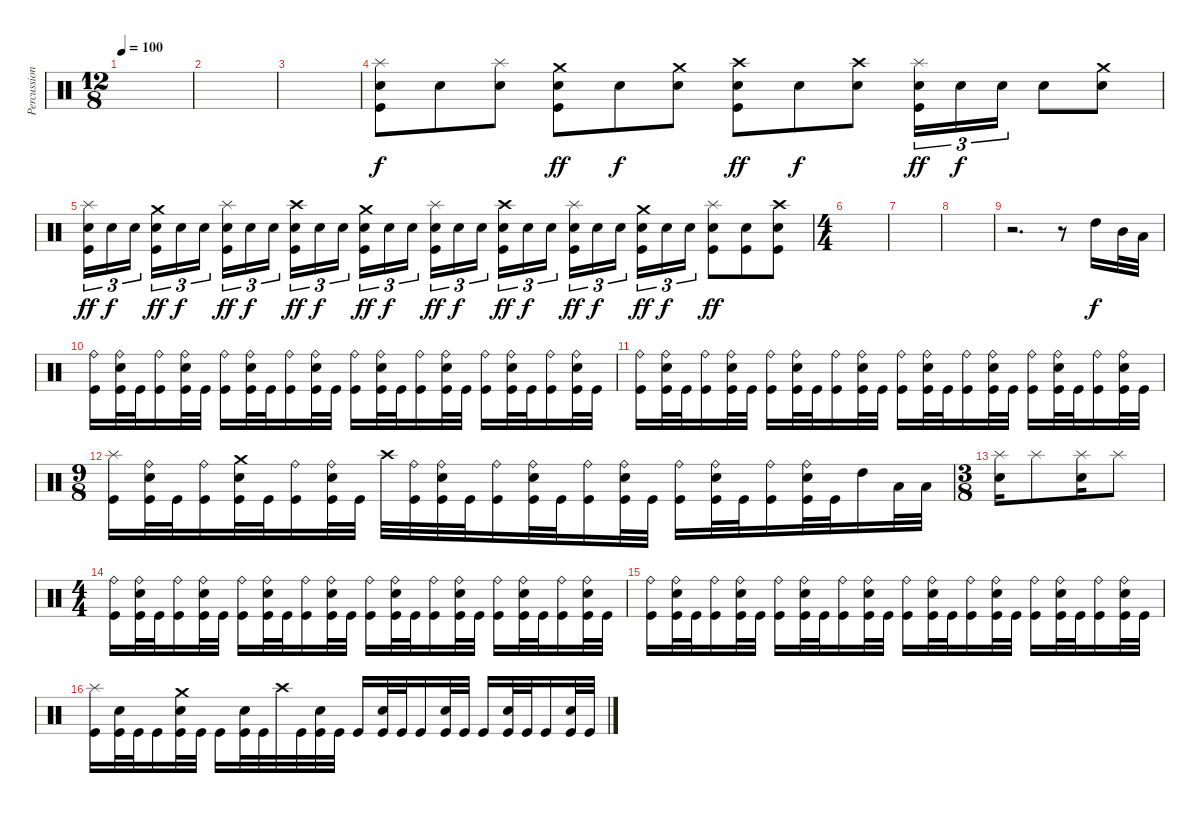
\track ("Percussioni" "Percussion") {instrument percussion}
\staff {score}
\articulation defaults
\ts (12 8)
\tempo 100
\clef neutral
\ks c
|
|
|
("Splash (hit)" "Snare (hit) 2" "Kick (hit)").8 "Snare (hit) 2".8{dy f} ("Splash (hit)" "Snare (hit) 2").8 ("Crash medium (hit)" "Snare (hit) 2" "Kick (hit)").8{dy ff} "Snare (hit) 2".8{dy f} ("Crash medium (hit)" "Snare (hit) 2").8 ("Crash high (hit)" "Snare (hit) 2" "Kick (hit)").8{dy ff} "Snare (hit) 2".8{dy f} ("Crash high (hit)" "Snare (hit) 2").8 ("Splash (hit)" "Snare (hit) 2" "Kick (hit)").16{tu (3 2) dy ff} "Snare (hit) 2".16{tu (3 2) dy f} "Snare (hit) 2".16{tu (3 2)} "Snare (hit) 2".8 ("Crash medium (hit)" "Snare (hit) 2").8 |
("Splash (hit)" "Snare (hit) 2" "Kick (hit)").16{tu (3 2) dy ff} "Snare (hit) 2".16{tu (3 2) dy f} "Snare (hit) 2".16{tu (3 2)} ("Crash medium (hit)" "Snare (hit) 2" "Kick (hit)").16{tu (3 2) dy ff} "Snare (hit) 2".16{tu (3 2) dy f} "Snare (hit) 2".16{tu (3 2)} ("Splash (hit)" "Snare (hit) 2" "Kick (hit)").16{tu (3 2) dy ff} "Snare (hit) 2".16{tu (3 2) dy f} "Snare (hit) 2".16{tu (3 2)} ("Crash high (hit)" "Snare (hit) 2" "Kick (hit)").16{tu (3 2) dy ff} "Snare (hit) 2".16{tu (3 2) dy f} "Snare (hit) 2".16{tu (3 2)} ("Crash medium (hit)" "Snare (hit) 2" "Kick (hit)").16{tu (3 2) dy ff} "Snare (hit) 2".16{tu (3 2) dy f} "Snare (hit) 2".16{tu (3 2)} ("Splash (hit)" "Snare (hit) 2" "Kick (hit)").16{tu (3 2) dy ff} "Snare (hit) 2".16{tu (3 2) dy f} "Snare (hit) 2".16{tu (3 2)} ("Crash high (hit)" "Snare (hit) 2" "Kick (hit)").16{tu (3 2) dy ff} "Snare (hit) 2".16{tu (3 2) dy f} "Snare (hit) 2".16{tu (3 2)} ("Splash (hit)" "Snare (hit) 2" "Kick (hit)").16{tu (3 2) dy ff} "Snare (hit) 2".16{tu (3 2) dy f} "Snare (hit) 2".16{tu (3 2)} ("Crash medium (hit)" "Snare (hit) 2" "Kick (hit)").16{tu (3 2) dy ff} "Snare (hit) 2".16{tu (3 2) dy f} "Snare (hit) 2".16{tu (3 2)} ("Splash (hit)" "Snare (hit) 2" "Kick (hit)").8{dy ff} ("Snare (hit) 2" "Kick (hit)").8 ("Crash high (hit)" "Snare (hit) 2" "Kick (hit)").8 |
\ts (4 4)
|
|
|
r.2{d} r.8 "High Tom (hit)".16{dy f} "Mid Tom (hit)".32 "Low Tom (hit)".32 |
("Ride (bell)" "Kick (hit)").16 ("Ride (bell)" "Snare (hit) 2" "Kick (hit)").32 "Kick (hit)".32 ("Ride (bell)" "Kick (hit)").16 ("Ride (bell)" "Snare (hit) 2" "Kick (hit)").32 "Kick (hit)".32 ("Ride (bell)" "Kick (hit)").16 ("Ride (bell)" "Snare (hit) 2" "Kick (hit)").32 "Kick (hit)".32 ("Ride (bell)" "Kick (hit)").16 ("Ride (bell)" "Snare (hit) 2" "Kick (hit)").32 "Kick (hit)".32 ("Ride (bell)" "Kick (hit)").16 ("Ride (bell)" "Snare (hit) 2" "Kick (hit)").32 "Kick (hit)".32 ("Ride (bell)" "Kick (hit)").16 ("Ride (bell)" "Snare (hit) 2" "Kick (hit)").32 "Kick (hit)".32 ("Ride (bell)" "Kick (hit)").16 ("Ride (bell)" "Snare (hit) 2" "Kick (hit)").32 "Kick (hit)".32 ("Ride (bell)" "Kick (hit)").16 ("Ride (bell)" "Snare (hit) 2" "Kick (hit)").32 "Kick (hit)".32 |
("Ride (bell)" "Kick (hit)").16 ("Ride (bell)" "Snare (hit) 2" "Kick (hit)").32 "Kick (hit)".32 ("Ride (bell)" "Kick (hit)").16 ("Ride (bell)" "Snare (hit) 2" "Kick (hit)").32 "Kick (hit)".32 ("Ride (bell)" "Kick (hit)").16 ("Ride (bell)" "Snare (hit) 2" "Kick (hit)").32 "Kick (hit)".32 ("Ride (bell)" "Kick (hit)").16 ("Ride (bell)" "Snare (hit) 2" "Kick (hit)").32 "Kick (hit)".32 ("Ride (bell)" "Kick (hit)").16 ("Ride (bell)" "Snare (hit) 2" "Kick (hit)").32 "Kick (hit)".32 ("Ride (bell)" "Kick (hit)").16 ("Ride (bell)" "Snare (hit) 2" "Kick (hit)").32 "Kick (hit)".32 ("Ride (bell)" "Kick (hit)").16 ("Ride (bell)" "Snare (hit) 2" "Kick (hit)").32 "Kick (hit)".32 ("Ride (bell)" "Kick (hit)").16 ("Ride (bell)" "Snare (hit) 2" "Kick (hit)").32 "Kick (hit)".32 |
\ts (9 8)
("Splash (hit)" "Kick (hit)").16 ("Ride (bell)" "Snare (hit) 2" "Kick (hit)").32 "Kick (hit)".32 ("Ride (bell)" "Kick (hit)").16 ("Crash medium (hit)" "Snare (hit) 2" "Kick (hit)").32 "Kick (hit)".32 ("Ride (bell)" "Kick (hit)").16 ("Ride (bell)" "Snare (hit) 2" "Kick (hit)").32 "Kick (hit)".32 "Crash high (hit)".32 ("Ride (bell)" "Kick (hit)").32 ("Ride (bell)" "Snare (hit) 2" "Kick (hit)").32 "Kick (hit)".32 ("Ride (bell)" "Kick (hit)").16 ("Ride (bell)" "Snare (hit) 2" "Kick (hit)").32 "Kick (hit)".32 ("Ride (bell)" "Kick (hit)").16 ("Ride (bell)" "Snare (hit) 2" "Kick (hit)").32 "Kick (hit)".32 ("Ride (bell)" "Kick (hit)").16 ("Ride (bell)" "Snare (hit) 2" "Kick (hit)").32 "Kick (hit)".32 ("Ride (bell)" "Kick (hit)").16 ("Ride (bell)" "Snare (hit) 2" "Kick (hit)").32 "Kick (hit)".32 "High Tom (hit)".16 "Low Tom (hit)".32 "Low Tom (hit)".32 |
\ts (3 8)
("Splash (hit)" "Snare (hit) 2").16 "Splash (hit)".8 ("Splash (hit)" "Snare (hit) 2").16 "Splash (hit)".8 |
\ts (4 4)
("Ride (bell)" "Kick (hit)").16 ("Ride (bell)" "Snare (hit) 2" "Kick (hit)").32 "Kick (hit)".32 ("Ride (bell)" "Kick (hit)").16 ("Ride (bell)" "Snare (hit) 2" "Kick (hit)").32 "Kick (hit)".32 ("Ride (bell)" "Kick (hit)").16 ("Ride (bell)" "Snare (hit) 2" "Kick (hit)").32 "Kick (hit)".32 ("Ride (bell)" "Kick (hit)").16 ("Ride (bell)" "Snare (hit) 2" "Kick (hit)").32 "Kick (hit)".32 ("Ride (bell)" "Kick (hit)").16 ("Ride (bell)" "Snare (hit) 2" "Kick (hit)").32 "Kick (hit)".32 ("Ride (bell)" "Kick (hit)").16 ("Ride (bell)" "Snare (hit) 2" "Kick (hit)").32 "Kick (hit)".32 ("Ride (bell)" "Kick (hit)").16 ("Ride (bell)" "Snare (hit) 2" "Kick (hit)").32 "Kick (hit)".32 ("Ride (bell)" "Kick (hit)").16 ("Ride (bell)" "Snare (hit) 2" "Kick (hit)").32 "Kick (hit)".32 |
("Ride (bell)" "Kick (hit)").16 ("Ride (bell)" "Snare (hit) 2" "Kick (hit)").32 "Kick (hit)".32 ("Ride (bell)" "Kick (hit)").16 ("Ride (bell)" "Snare (hit) 2" "Kick (hit)").32 "Kick (hit)".32 ("Ride (bell)" "Kick (hit)").16 ("Ride (bell)" "Snare (hit) 2" "Kick (hit)").32 "Kick (hit)".32 ("Ride (bell)" "Kick (hit)").16 ("Ride (bell)" "Snare (hit) 2" "Kick (hit)").32 "Kick (hit)".32 ("Ride (bell)" "Kick (hit)").16 ("Ride (bell)" "Snare (hit) 2" "Kick (hit)").32 "Kick (hit)".32 ("Ride (bell)" "Kick (hit)").16 ("Ride (bell)" "Snare (hit) 2" "Kick (hit)").32 "Kick (hit)".32 ("Ride (bell)" "Kick (hit)").16 ("Ride (bell)" "Snare (hit) 2" "Kick (hit)").32 "Kick (hit)".32 ("Ride (bell)" "Kick (hit)").16 ("Ride (bell)" "Snare (hit) 2" "Kick (hit)").32 "Kick (hit)".32 |
("Splash (hit)" "Kick (hit)").16 ("Snare (hit) 2" "Kick (hit)").32 "Kick (hit)".32 "Kick (hit)".16 ("Crash medium (hit)" "Snare (hit) 2" "Kick (hit)").32 "Kick (hit)".32 "Kick (hit)".16 ("Snare (hit) 2" "Kick (hit)").32 "Kick (hit)".32 "Crash high (hit)".32 "Kick (hit)".32 ("Snare (hit) 2" "Kick (hit)").32 "Kick (hit)".32 "Kick (hit)".16 ("Snare (hit) 2" "Kick (hit)").32 "Kick (hit)".32 "Kick (hit)".16 ("Snare (hit) 2" "Kick (hit)").32 "Kick (hit)".32 "Kick (hit)".16 ("Snare (hit) 2" "Kick (hit)").32 "Kick (hit)".32 "Kick (hit)".16 ("Snare (hit) 2" "Kick (hit)").32 "Kick (hit)".32
